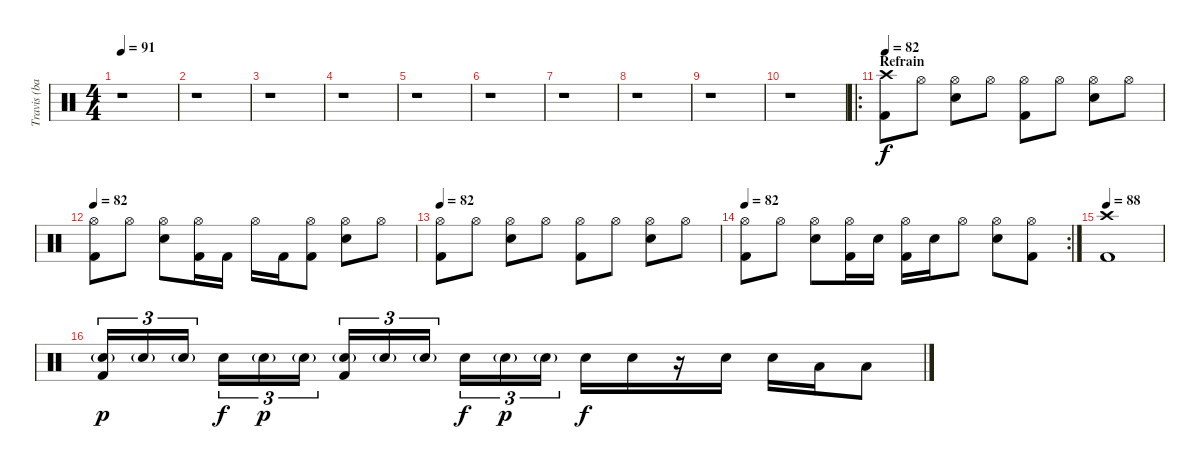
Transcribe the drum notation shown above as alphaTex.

\track ("Travis (batterie)" "Travis (ba") {instrument percussion}
\staff {score}
\articulation defaults
\ts (4 4)
\tempo 91
\clef neutral
\ks c
r.1{dy f} |
r.1 |
r.1 |
r.1 |
r.1 |
r.1 |
r.1 |
r.1 |
r.1 |
r.1 |
\ro
\section ("" "Refrain")
\tempo 82
("Crash high (hit)" "Kick (hit) 2").8 "Hi-Hat (open)".8 ("Hi-Hat (open)" "Electric Snare (hit)").8 "Hi-Hat (open)".8 ("Hi-Hat (open)" "Kick (hit) 2").8 "Hi-Hat (open)".8 ("Hi-Hat (open)" "Electric Snare (hit)").8 "Hi-Hat (open)".8 |
\tempo 82
("Hi-Hat (open)" "Kick (hit) 2").8 "Hi-Hat (open)".8 ("Hi-Hat (open)" "Electric Snare (hit)").8 ("Hi-Hat (open)" "Kick (hit) 2").16 "Kick (hit) 2".16 "Hi-Hat (open)".16 "Kick (hit) 2".16 ("Hi-Hat (open)" "Kick (hit) 2").8 ("Hi-Hat (open)" "Electric Snare (hit)").8 "Hi-Hat (open)".8 |
\tempo 82
("Hi-Hat (open)" "Kick (hit) 2").8 "Hi-Hat (open)".8 ("Hi-Hat (open)" "Electric Snare (hit)").8 "Hi-Hat (open)".8 ("Hi-Hat (open)" "Kick (hit) 2").8 "Hi-Hat (open)".8 ("Hi-Hat (open)" "Electric Snare (hit)").8 "Hi-Hat (open)".8 |
\rc 2
\tempo 82
("Hi-Hat (open)" "Kick (hit) 2").8 "Hi-Hat (open)".8 ("Hi-Hat (open)" "Electric Snare (hit)").8 ("Hi-Hat (open)" "Kick (hit) 2").16 "Electric Snare (hit)".16 ("Hi-Hat (open)" "Kick (hit) 2").16 "Electric Snare (hit)".16 "Hi-Hat (open)".8 ("Hi-Hat (open)" "Electric Snare (hit)").8 ("Hi-Hat (open)" "Kick (hit) 2").8 |
\tempo 88
("Crash high (hit)" "Kick (hit) 2").1 |
("Snare (hit) 2"{g} "Kick (hit) 2").16{tu (3 2) dy p} "Snare (hit) 2"{g}.16{tu (3 2)} "Snare (hit) 2"{g}.16{tu (3 2)} "Electric Snare (hit)".16{tu (3 2) dy f} "Snare (hit) 2"{g}.16{tu (3 2) dy p} "Snare (hit) 2"{g}.16{tu (3 2)} ("Snare (hit) 2"{g} "Kick (hit) 2").16{tu (3 2)} "Snare (hit) 2"{g}.16{tu (3 2)} "Snare (hit) 2"{g}.16{tu (3 2)} "Electric Snare (hit)".16{tu (3 2) dy f} "Snare (hit) 2"{g}.16{tu (3 2) dy p} "Snare (hit) 2"{g}.16{tu (3 2)} "Electric Snare (hit)".16{dy f} "Electric Snare (hit)".16 r.16 "Electric Snare (hit)".16 "Electric Snare (hit)".16 "Low Tom (hit)".16 "Low Tom (hit)".8
